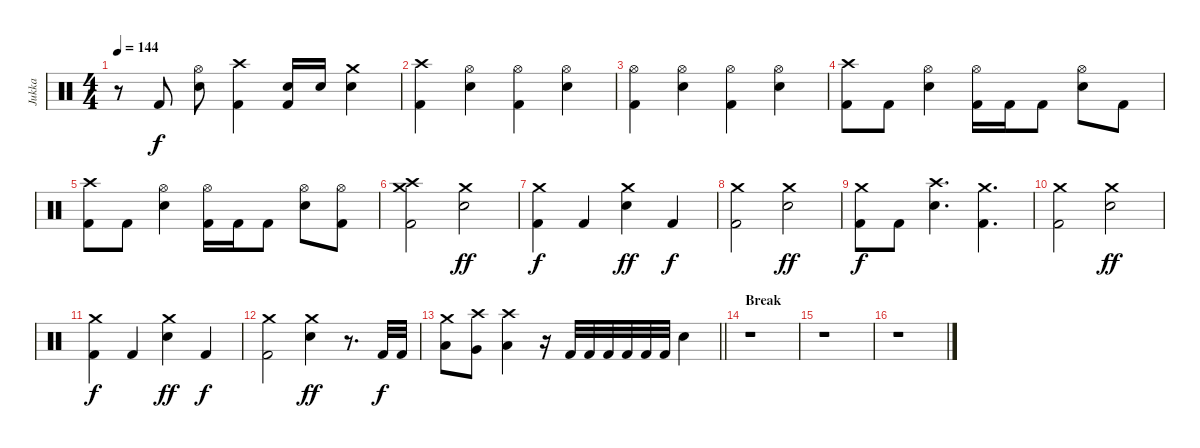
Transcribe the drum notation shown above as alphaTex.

\track ("Jukka" "Jukka") {instrument percussion}
\staff {score}
\articulation defaults
\ts (4 4)
\tempo 144
\clef neutral
\ks c
r.8{dy f} "Kick (hit) 2".8 ("Hi-Hat (open)" "Electric Snare (hit)").8 ("Crash high (hit)" "Kick (hit) 2").4 ("Electric Snare (hit)" "Kick (hit) 2").16 "Electric Snare (hit)".16 ("Crash medium (hit)" "Electric Snare (hit)").4 |
("Crash high (hit)" "Kick (hit) 2").4 ("Hi-Hat (open)" "Electric Snare (hit)").4 ("Hi-Hat (open)" "Kick (hit) 2").4 ("Hi-Hat (open)" "Electric Snare (hit)").4 |
("Hi-Hat (open)" "Kick (hit) 2").4 ("Hi-Hat (open)" "Electric Snare (hit)").4 ("Hi-Hat (open)" "Kick (hit) 2").4 ("Hi-Hat (open)" "Electric Snare (hit)").4 |
("Crash high (hit)" "Kick (hit) 2").8 "Kick (hit) 2".8 ("Hi-Hat (open)" "Electric Snare (hit)").4 ("Hi-Hat (open)" "Kick (hit) 2").16 "Kick (hit) 2".16 "Kick (hit) 2".8 ("Hi-Hat (open)" "Electric Snare (hit)").8 "Kick (hit) 2".8 |
("Crash high (hit)" "Kick (hit) 2").8 "Kick (hit) 2".8 ("Hi-Hat (open)" "Electric Snare (hit)").4 ("Hi-Hat (open)" "Kick (hit) 2").16 "Kick (hit) 2".16 "Kick (hit) 2".8 ("Hi-Hat (open)" "Electric Snare (hit)").8 ("Hi-Hat (open)" "Kick (hit) 2").8 |
("Crash medium (hit)" "Crash high (hit)" "Kick (hit) 2").2 ("Crash medium (hit)" "Snare (hit) 2").2{dy ff} |
("Crash medium (hit)" "Kick (hit) 2").4{dy f} "Kick (hit) 2".4 ("Crash medium (hit)" "Snare (hit) 2").4{dy ff} "Kick (hit) 2".4{dy f} |
("Crash medium (hit)" "Kick (hit) 2").2 ("Crash medium (hit)" "Snare (hit) 2").2{dy ff} |
("Crash medium (hit)" "Kick (hit) 2").8{dy f} "Kick (hit) 2".8 ("Crash high (hit)" "Snare (hit) 2").4{d} ("Crash medium (hit)" "Kick (hit) 2").4{d} |
("Crash medium (hit)" "Kick (hit) 2").2 ("Crash medium (hit)" "Snare (hit) 2").2{dy ff} |
("Crash medium (hit)" "Kick (hit) 2").4{dy f} "Kick (hit) 2".4 ("Crash medium (hit)" "Snare (hit) 2").4{dy ff} "Kick (hit) 2".4{dy f} |
("Crash medium (hit)" "Kick (hit) 2").2 ("Crash medium (hit)" "Snare (hit) 2").4{dy ff} r.8{d} "Kick (hit) 2".32{dy f} "Kick (hit) 2".32 |
\barLineRight lightlight
("Crash medium (hit)" "Low Tom (hit)").8 ("Crash high (hit)" "Very Low Tom (hit)").8 ("Crash high (hit)" "Low Floor Tom (hit)").4 r.16 "Kick (hit) 2".32 "Kick (hit) 2".32 "Kick (hit) 2".32 "Kick (hit) 2".32 "Kick (hit) 2".32 "Kick (hit) 2".32 "Electric Snare (hit)".4 |
\section ("" "Break")
r.1 |
r.1 |
r.1
